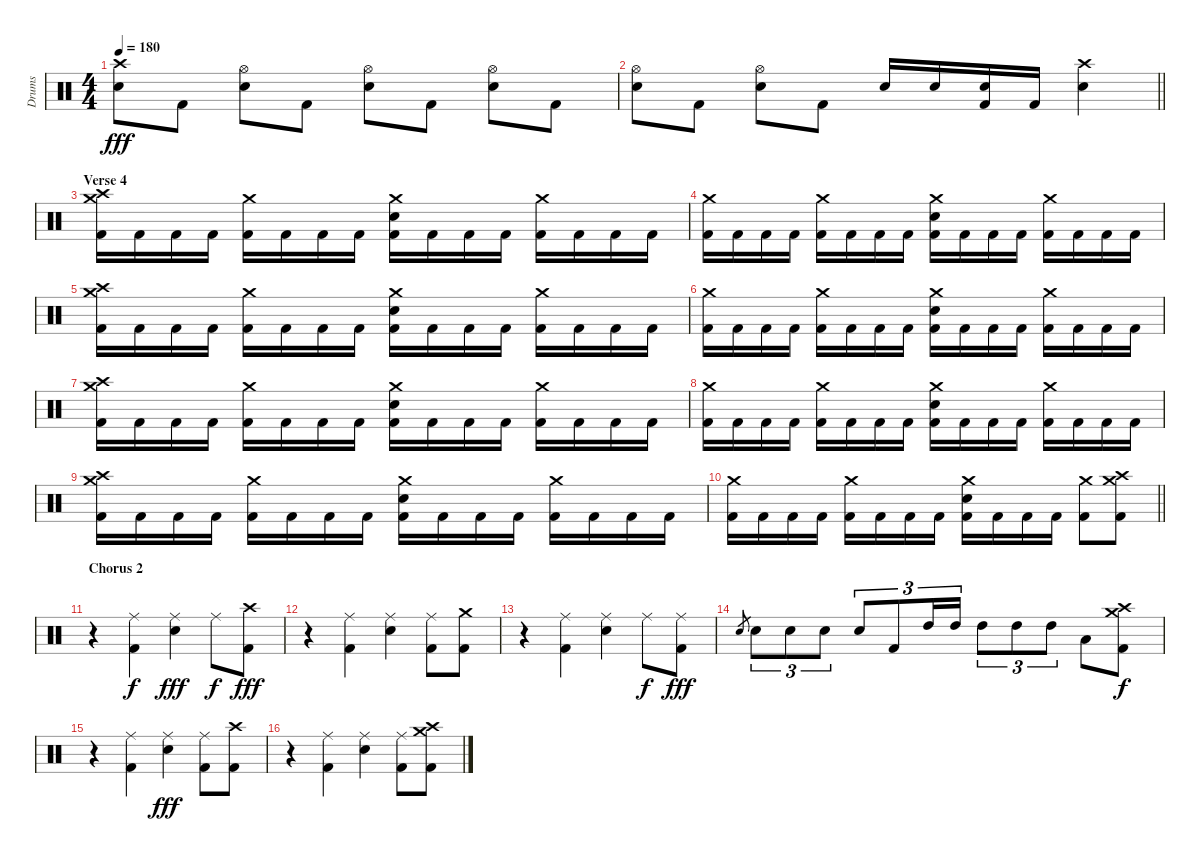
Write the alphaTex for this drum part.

\track ("Drums" "Drums") {instrument percussion}
\staff {score}
\articulation defaults
\ts (4 4)
\tempo 180
\clef neutral
\ks c
("Crash high (hit)" "Electric Snare (hit)").8{dy fff} "Kick (hit) 2".8 ("Hi-Hat (open)" "Electric Snare (hit)").8 "Kick (hit) 2".8 ("Hi-Hat (open)" "Electric Snare (hit)").8 "Kick (hit) 2".8 ("Hi-Hat (open)" "Electric Snare (hit)").8 "Kick (hit) 2".8 |
\barLineRight lightlight
("Hi-Hat (open)" "Electric Snare (hit)").8 "Kick (hit) 2".8 ("Hi-Hat (open)" "Electric Snare (hit)").8 "Kick (hit) 2".8 "Electric Snare (hit)".16 "Electric Snare (hit)".16 ("Electric Snare (hit)" "Kick (hit) 2").16 "Kick (hit) 2".16 ("Crash high (hit)" "Electric Snare (hit)").4 |
\section ("" "Verse 4")
("Crash medium (hit)" "Crash high (hit)" "Kick (hit) 2").16 "Kick (hit) 2".16 "Kick (hit) 2".16 "Kick (hit) 2".16 ("Crash medium (hit)" "Kick (hit) 2").16 "Kick (hit) 2".16 "Kick (hit) 2".16 "Kick (hit) 2".16 ("Crash medium (hit)" "Electric Snare (hit)" "Kick (hit) 2").16 "Kick (hit) 2".16 "Kick (hit) 2".16 "Kick (hit) 2".16 ("Crash medium (hit)" "Kick (hit) 2").16 "Kick (hit) 2".16 "Kick (hit) 2".16 "Kick (hit) 2".16 |
("Crash medium (hit)" "Kick (hit) 2").16 "Kick (hit) 2".16 "Kick (hit) 2".16 "Kick (hit) 2".16 ("Crash medium (hit)" "Kick (hit) 2").16 "Kick (hit) 2".16 "Kick (hit) 2".16 "Kick (hit) 2".16 ("Crash medium (hit)" "Electric Snare (hit)" "Kick (hit) 2").16 "Kick (hit) 2".16 "Kick (hit) 2".16 "Kick (hit) 2".16 ("Crash medium (hit)" "Kick (hit) 2").16 "Kick (hit) 2".16 "Kick (hit) 2".16 "Kick (hit) 2".16 |
("Crash medium (hit)" "Crash high (hit)" "Kick (hit) 2").16 "Kick (hit) 2".16 "Kick (hit) 2".16 "Kick (hit) 2".16 ("Crash medium (hit)" "Kick (hit) 2").16 "Kick (hit) 2".16 "Kick (hit) 2".16 "Kick (hit) 2".16 ("Crash medium (hit)" "Electric Snare (hit)" "Kick (hit) 2").16 "Kick (hit) 2".16 "Kick (hit) 2".16 "Kick (hit) 2".16 ("Crash medium (hit)" "Kick (hit) 2").16 "Kick (hit) 2".16 "Kick (hit) 2".16 "Kick (hit) 2".16 |
("Crash medium (hit)" "Kick (hit) 2").16 "Kick (hit) 2".16 "Kick (hit) 2".16 "Kick (hit) 2".16 ("Crash medium (hit)" "Kick (hit) 2").16 "Kick (hit) 2".16 "Kick (hit) 2".16 "Kick (hit) 2".16 ("Crash medium (hit)" "Electric Snare (hit)" "Kick (hit) 2").16 "Kick (hit) 2".16 "Kick (hit) 2".16 "Kick (hit) 2".16 ("Crash medium (hit)" "Kick (hit) 2").16 "Kick (hit) 2".16 "Kick (hit) 2".16 "Kick (hit) 2".16 |
("Crash medium (hit)" "Crash high (hit)" "Kick (hit) 2").16 "Kick (hit) 2".16 "Kick (hit) 2".16 "Kick (hit) 2".16 ("Crash medium (hit)" "Kick (hit) 2").16 "Kick (hit) 2".16 "Kick (hit) 2".16 "Kick (hit) 2".16 ("Crash medium (hit)" "Electric Snare (hit)" "Kick (hit) 2").16 "Kick (hit) 2".16 "Kick (hit) 2".16 "Kick (hit) 2".16 ("Crash medium (hit)" "Kick (hit) 2").16 "Kick (hit) 2".16 "Kick (hit) 2".16 "Kick (hit) 2".16 |
("Crash medium (hit)" "Kick (hit) 2").16 "Kick (hit) 2".16 "Kick (hit) 2".16 "Kick (hit) 2".16 ("Crash medium (hit)" "Kick (hit) 2").16 "Kick (hit) 2".16 "Kick (hit) 2".16 "Kick (hit) 2".16 ("Crash medium (hit)" "Electric Snare (hit)" "Kick (hit) 2").16 "Kick (hit) 2".16 "Kick (hit) 2".16 "Kick (hit) 2".16 ("Crash medium (hit)" "Kick (hit) 2").16 "Kick (hit) 2".16 "Kick (hit) 2".16 "Kick (hit) 2".16 |
("Crash medium (hit)" "Crash high (hit)" "Kick (hit) 2").16 "Kick (hit) 2".16 "Kick (hit) 2".16 "Kick (hit) 2".16 ("Crash medium (hit)" "Kick (hit) 2").16 "Kick (hit) 2".16 "Kick (hit) 2".16 "Kick (hit) 2".16 ("Crash medium (hit)" "Electric Snare (hit)" "Kick (hit) 2").16 "Kick (hit) 2".16 "Kick (hit) 2".16 "Kick (hit) 2".16 ("Crash medium (hit)" "Kick (hit) 2").16 "Kick (hit) 2".16 "Kick (hit) 2".16 "Kick (hit) 2".16 |
\barLineRight lightlight
("Crash medium (hit)" "Kick (hit) 2").16 "Kick (hit) 2".16 "Kick (hit) 2".16 "Kick (hit) 2".16 ("Crash medium (hit)" "Kick (hit) 2").16 "Kick (hit) 2".16 "Kick (hit) 2".16 "Kick (hit) 2".16 ("Crash medium (hit)" "Electric Snare (hit)" "Kick (hit) 2").16 "Kick (hit) 2".16 "Kick (hit) 2".16 "Kick (hit) 2".16 ("Crash medium (hit)" "Kick (hit) 2").8 ("Crash medium (hit)" "Crash high (hit)" "Kick (hit) 2").8 |
\section ("" "Chorus 2")
r.4 ("Ride (middle)" "Kick (hit) 2").4{dy f} ("Ride (middle)" "Electric Snare (hit)").4{dy fff} "Ride (middle)".8{dy f} ("Crash high (hit)" "Kick (hit) 2").8{dy fff} |
r.4 ("Ride (middle)" "Kick (hit) 2").4 ("Ride (middle)" "Electric Snare (hit)").4 ("Ride (middle)" "Kick (hit) 2").8 ("Crash medium (hit)" "Kick (hit) 2").8 |
r.4 ("Ride (middle)" "Kick (hit) 2").4 ("Ride (middle)" "Electric Snare (hit)").4 "Ride (middle)".8{dy f} ("Ride (middle)" "Kick (hit) 2").8{dy fff} |
"Electric Snare (hit)".8{gr} "Electric Snare (hit)".8{tu (3 2)} "Electric Snare (hit)".8{tu (3 2)} "Electric Snare (hit)".8{tu (3 2)} "Electric Snare (hit)".8{tu (3 2)} "Kick (hit) 2".8{tu (3 2)} "High Tom (hit)".16{tu (3 2)} "High Tom (hit)".16{tu (3 2)} "High Tom (hit)".8{tu (3 2)} "High Tom (hit)".8{tu (3 2)} "High Tom (hit)".8{tu (3 2)} "Low Tom (hit)".8 ("Crash medium (hit)" "Crash high (hit)" "Kick (hit) 2").8{dy f} |
r.4 ("Ride (middle)" "Kick (hit) 2").4 ("Ride (middle)" "Electric Snare (hit)").4{dy fff} ("Ride (middle)" "Kick (hit) 2").8 ("Crash high (hit)" "Kick (hit) 2").8 |
r.4 ("Ride (middle)" "Kick (hit) 2").4 ("Ride (middle)" "Electric Snare (hit)").4 ("Ride (middle)" "Kick (hit) 2").8 ("Crash medium (hit)" "Crash high (hit)" "Kick (hit) 2").8
